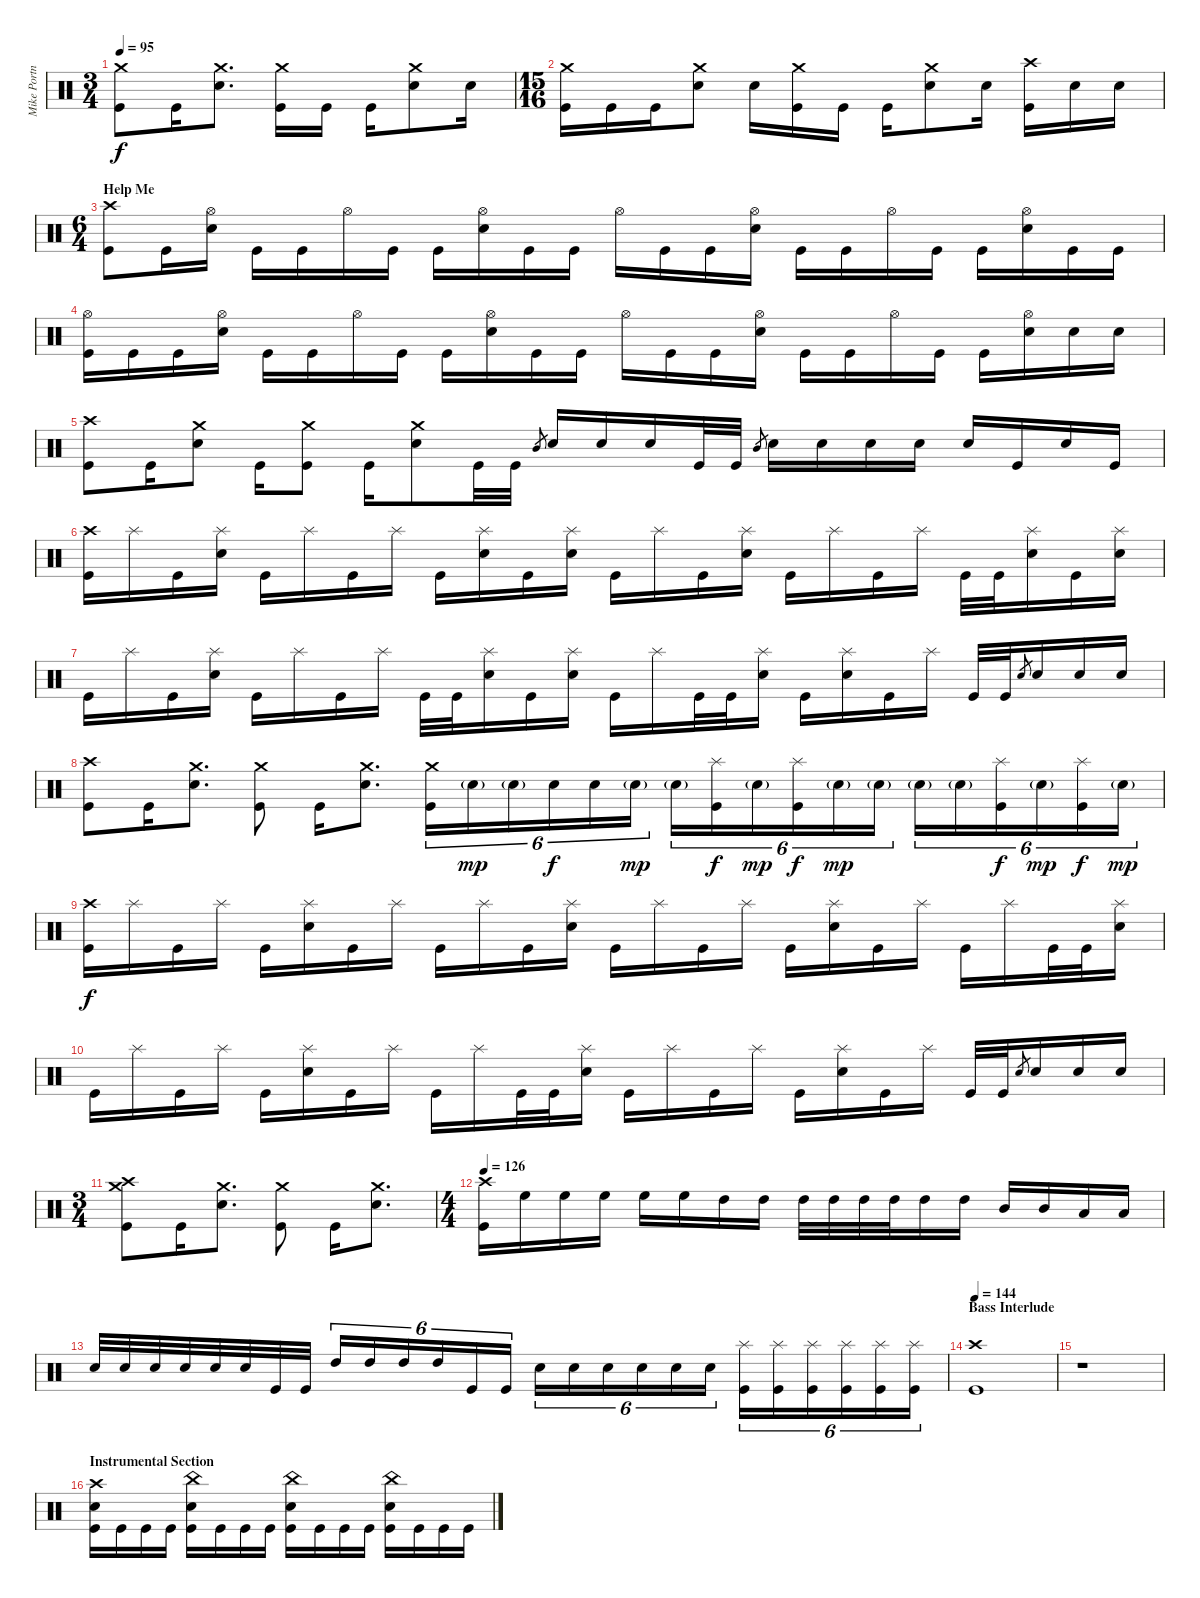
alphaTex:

\track ("Mike Portnoy" "Mike Portn") {instrument percussion}
\staff {score}
\articulation defaults
\ts (3 4)
\tempo 95
\clef neutral
\ks c
("Crash medium (hit)" "Kick (hit)").8{dy f} "Kick (hit)".16 ("Crash medium (hit)" "Electric Snare (hit)").8{d} ("Crash medium (hit)" "Kick (hit)").16 "Kick (hit)".16 "Kick (hit)".16 ("Crash medium (hit)" "Electric Snare (hit)").8 "Electric Snare (hit)".16 |
\ts (15 16)
("Crash medium (hit)" "Kick (hit)").16 "Kick (hit)".16 "Kick (hit)".16 ("Crash medium (hit)" "Electric Snare (hit)").8 "Electric Snare (hit)".16 ("Crash medium (hit)" "Kick (hit)").16 "Kick (hit)".16 "Kick (hit)".16 ("Crash medium (hit)" "Electric Snare (hit)").8 "Electric Snare (hit)".16 ("Crash high (hit)" "Kick (hit)").16 "Electric Snare (hit)".16 "Electric Snare (hit)".16 |
\ts (6 4)
\section ("" "Help Me")
("Crash high (hit)" "Kick (hit)").8 "Kick (hit)".16 ("Hi-Hat (open)" "Electric Snare (hit)").16 "Kick (hit)".16 "Kick (hit)".16 "Hi-Hat (open)".16 "Kick (hit)".16 "Kick (hit)".16 ("Hi-Hat (open)" "Electric Snare (hit)").16 "Kick (hit)".16 "Kick (hit)".16 "Hi-Hat (open)".16 "Kick (hit)".16 "Kick (hit)".16 ("Hi-Hat (open)" "Electric Snare (hit)").16 "Kick (hit)".16 "Kick (hit)".16 "Hi-Hat (open)".16 "Kick (hit)".16 "Kick (hit)".16 ("Hi-Hat (open)" "Electric Snare (hit)").16 "Kick (hit)".16 "Kick (hit)".16 |
("Hi-Hat (open)" "Kick (hit)").16 "Kick (hit)".16 "Kick (hit)".16 ("Hi-Hat (open)" "Electric Snare (hit)").16 "Kick (hit)".16 "Kick (hit)".16 "Hi-Hat (open)".16 "Kick (hit)".16 "Kick (hit)".16 ("Hi-Hat (open)" "Electric Snare (hit)").16 "Kick (hit)".16 "Kick (hit)".16 "Hi-Hat (open)".16 "Kick (hit)".16 "Kick (hit)".16 ("Hi-Hat (open)" "Electric Snare (hit)").16 "Kick (hit)".16 "Kick (hit)".16 "Hi-Hat (open)".16 "Kick (hit)".16 "Kick (hit)".16 ("Hi-Hat (open)" "Electric Snare (hit)").16 "Electric Snare (hit)".16 "Electric Snare (hit)".16 |
("Crash high (hit)" "Kick (hit)").8 "Kick (hit)".16 ("Crash medium (hit)" "Electric Snare (hit)").8 "Kick (hit)".16 ("Crash medium (hit)" "Kick (hit)").8 "Kick (hit)".16 ("Crash medium (hit)" "Electric Snare (hit)").8 "Kick (hit)".32 "Kick (hit)".32 "Mid Tom (hit)".8{gr} "Electric Snare (hit)".16 "Electric Snare (hit)".16 "Electric Snare (hit)".16 "Kick (hit)".32 "Kick (hit)".32 "Mid Tom (hit)".8{gr} "Electric Snare (hit)".16 "Electric Snare (hit)".16 "Electric Snare (hit)".16 "Electric Snare (hit)".16 "Electric Snare (hit)".16 "Kick (hit)".16 "Electric Snare (hit)".16 "Kick (hit)".16 |
("Crash high (hit)" "Kick (hit)").16 "Splash (hit)".16 "Kick (hit)".16 ("Splash (hit)" "Electric Snare (hit)").16 "Kick (hit)".16 "Splash (hit)".16 "Kick (hit)".16 "Splash (hit)".16 "Kick (hit)".16 ("Splash (hit)" "Electric Snare (hit)").16 "Kick (hit)".16 ("Splash (hit)" "Electric Snare (hit)").16 "Kick (hit)".16 "Splash (hit)".16 "Kick (hit)".16 ("Splash (hit)" "Electric Snare (hit)").16 "Kick (hit)".16 "Splash (hit)".16 "Kick (hit)".16 "Splash (hit)".16 "Kick (hit)".32 "Kick (hit)".32 ("Splash (hit)" "Electric Snare (hit)").16 "Kick (hit)".16 ("Splash (hit)" "Electric Snare (hit)").16 |
"Kick (hit)".16 "Splash (hit)".16 "Kick (hit)".16 ("Splash (hit)" "Electric Snare (hit)").16 "Kick (hit)".16 "Splash (hit)".16 "Kick (hit)".16 "Splash (hit)".16 "Kick (hit)".32 "Kick (hit)".32 ("Splash (hit)" "Electric Snare (hit)").16 "Kick (hit)".16 ("Splash (hit)" "Electric Snare (hit)").16 "Kick (hit)".16 "Splash (hit)".16 "Kick (hit)".32 "Kick (hit)".32 ("Splash (hit)" "Electric Snare (hit)").16 "Kick (hit)".16 ("Splash (hit)" "Electric Snare (hit)").16 "Kick (hit)".16 "Splash (hit)".16 "Kick (hit)".32 "Kick (hit)".32 "Electric Snare (hit)".8{gr} "Electric Snare (hit)".16 "Electric Snare (hit)".16 "Electric Snare (hit)".16 |
("Crash high (hit)" "Kick (hit)").8 "Kick (hit)".16 ("Crash medium (hit)" "Electric Snare (hit)").8{d} ("Crash medium (hit)" "Kick (hit)").8 "Kick (hit)".16 ("Crash medium (hit)" "Electric Snare (hit)").8{d} ("Crash medium (hit)" "Kick (hit)").16{tu (6 4)} "Electric Snare (hit)"{g}.16{tu (6 4) dy mp} "Electric Snare (hit)"{g}.16{tu (6 4)} "Electric Snare (hit)".16{tu (6 4) dy f} "Electric Snare (hit)".16{tu (6 4)} "Electric Snare (hit)"{g}.16{tu (6 4) dy mp} "Electric Snare (hit)"{g}.16{tu (6 4)} ("Splash (hit)" "Kick (hit)").16{tu (6 4) dy f} "Electric Snare (hit)"{g}.16{tu (6 4) dy mp} ("Splash (hit)" "Kick (hit)").16{tu (6 4) dy f} "Electric Snare (hit)"{g}.16{tu (6 4) dy mp} "Electric Snare (hit)"{g}.16{tu (6 4)} "Electric Snare (hit)"{g}.16{tu (6 4)} "Electric Snare (hit)"{g}.16{tu (6 4)} ("Splash (hit)" "Kick (hit)").16{tu (6 4) dy f} "Electric Snare (hit)"{g}.16{tu (6 4) dy mp} ("Splash (hit)" "Kick (hit)").16{tu (6 4) dy f} "Electric Snare (hit)"{g}.16{tu (6 4) dy mp} |
("Crash high (hit)" "Kick (hit)").16{dy f} "Splash (hit)".16 "Kick (hit)".16 "Splash (hit)".16 "Kick (hit)".16 ("Splash (hit)" "Electric Snare (hit)").16 "Kick (hit)".16 "Splash (hit)".16 "Kick (hit)".16 "Splash (hit)".16 "Kick (hit)".16 ("Splash (hit)" "Electric Snare (hit)").16 "Kick (hit)".16 "Splash (hit)".16 "Kick (hit)".16 "Splash (hit)".16 "Kick (hit)".16 ("Splash (hit)" "Electric Snare (hit)").16 "Kick (hit)".16 "Splash (hit)".16 "Kick (hit)".16 "Splash (hit)".16 "Kick (hit)".32 "Kick (hit)".32 ("Splash (hit)" "Electric Snare (hit)").16 |
"Kick (hit)".16 "Splash (hit)".16 "Kick (hit)".16 "Splash (hit)".16 "Kick (hit)".16 ("Splash (hit)" "Electric Snare (hit)").16 "Kick (hit)".16 "Splash (hit)".16 "Kick (hit)".16 "Splash (hit)".16 "Kick (hit)".32 "Kick (hit)".32 ("Splash (hit)" "Electric Snare (hit)").16 "Kick (hit)".16 "Splash (hit)".16 "Kick (hit)".16 "Splash (hit)".16 "Kick (hit)".16 ("Splash (hit)" "Electric Snare (hit)").16 "Kick (hit)".16 "Splash (hit)".16 "Kick (hit)".32 "Kick (hit)".32 "Electric Snare (hit)".8{gr} "Electric Snare (hit)".16 "Electric Snare (hit)".16 "Electric Snare (hit)".16 |
\ts (3 4)
("Crash high (hit)" "Crash medium (hit)" "Kick (hit)").8 "Kick (hit)".16 ("Crash medium (hit)" "Electric Snare (hit)").8{d} ("Crash medium (hit)" "Kick (hit)").8 "Kick (hit)".16 ("Crash medium (hit)" "Electric Snare (hit)").8{d} |
\ts (4 4)
\tempo 126
("Crash high (hit)" "Kick (hit)").16 "High Floor Tom (hit)".16 "High Floor Tom (hit)".16 "High Floor Tom (hit)".16 "High Floor Tom (hit)".16 "High Floor Tom (hit)".16 "High Tom (hit)".16 "High Tom (hit)".16 "High Tom (hit)".32 "High Tom (hit)".32 "High Tom (hit)".32 "High Tom (hit)".32 "High Tom (hit)".16 "High Tom (hit)".16 "Mid Tom (hit)".16 "Mid Tom (hit)".16 "Low Tom (hit)".16 "Low Tom (hit)".16 |
"Electric Snare (hit)".32 "Electric Snare (hit)".32 "Electric Snare (hit)".32 "Electric Snare (hit)".32 "Electric Snare (hit)".32 "Electric Snare (hit)".32 "Kick (hit)".32 "Kick (hit)".32 "High Tom (hit)".16{tu (6 4)} "High Tom (hit)".16{tu (6 4)} "High Tom (hit)".16{tu (6 4)} "High Tom (hit)".16{tu (6 4)} "Kick (hit)".16{tu (6 4)} "Kick (hit)".16{tu (6 4)} "Electric Snare (hit)".16{tu (6 4)} "Electric Snare (hit)".16{tu (6 4)} "Electric Snare (hit)".16{tu (6 4)} "Electric Snare (hit)".16{tu (6 4)} "Electric Snare (hit)".16{tu (6 4)} "Electric Snare (hit)".16{tu (6 4)} ("Splash (hit)" "Kick (hit)").16{tu (6 4)} ("Splash (hit)" "Kick (hit)").16{tu (6 4)} ("Splash (hit)" "Kick (hit)").16{tu (6 4)} ("Splash (hit)" "Kick (hit)").16{tu (6 4)} ("Splash (hit)" "Kick (hit)").16{tu (6 4)} ("Splash (hit)" "Kick (hit)").16{tu (6 4)} |
\section ("" "Bass Interlude")
\tempo 144
("Crash high (hit)" "Kick (hit)").1 |
r.1 |
\section ("" "Instrumental Section")
("Crash high (hit)" "Electric Snare (hit)" "Kick (hit)").16 "Kick (hit)".16 "Kick (hit)".16 "Kick (hit)".16 ("China (hit)" "Electric Snare (hit)" "Kick (hit)").16 "Kick (hit)".16 "Kick (hit)".16 "Kick (hit)".16 ("China (hit)" "Electric Snare (hit)" "Kick (hit)").16 "Kick (hit)".16 "Kick (hit)".16 "Kick (hit)".16 ("China (hit)" "Electric Snare (hit)" "Kick (hit)").16 "Kick (hit)".16 "Kick (hit)".16 "Kick (hit)".16
